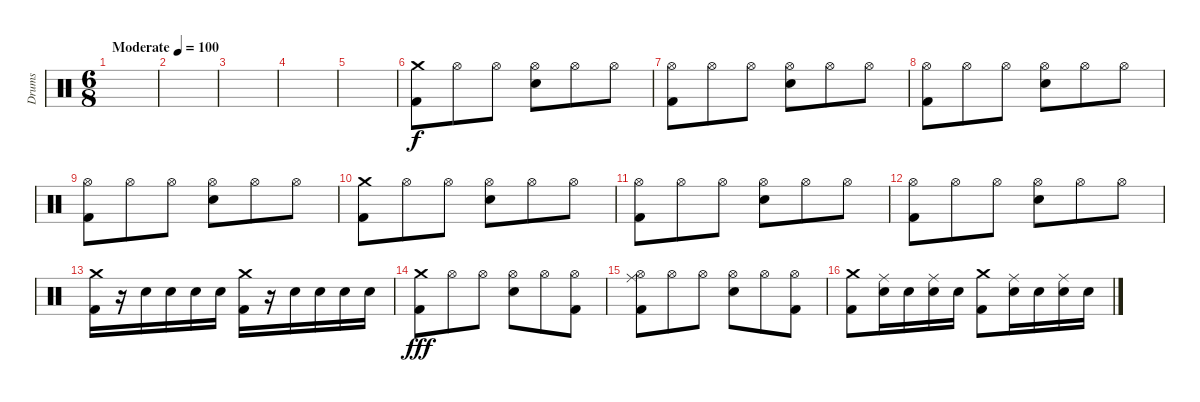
\track ("Drums" "Drums") {instrument percussion}
\staff {score}
\articulation defaults
\ts (6 8)
\tempo (100 "Moderate")
\clef neutral
\ks c
|
|
|
|
|
("Crash medium (hit)" "Kick (hit) 2").8 "Hi-Hat (open)".8 "Hi-Hat (open)".8 ("Hi-Hat (open)" "Electric Snare (hit)").8 "Hi-Hat (open)".8 "Hi-Hat (open)".8 |
("Hi-Hat (open)" "Kick (hit) 2").8 "Hi-Hat (open)".8 "Hi-Hat (open)".8 ("Hi-Hat (open)" "Electric Snare (hit)").8 "Hi-Hat (open)".8 "Hi-Hat (open)".8 |
("Hi-Hat (open)" "Kick (hit) 2").8 "Hi-Hat (open)".8 "Hi-Hat (open)".8 ("Hi-Hat (open)" "Electric Snare (hit)").8 "Hi-Hat (open)".8 "Hi-Hat (open)".8 |
("Hi-Hat (open)" "Kick (hit) 2").8 "Hi-Hat (open)".8 "Hi-Hat (open)".8 ("Hi-Hat (open)" "Electric Snare (hit)").8 "Hi-Hat (open)".8 "Hi-Hat (open)".8 |
("Crash medium (hit)" "Kick (hit) 2").8 "Hi-Hat (open)".8 "Hi-Hat (open)".8 ("Hi-Hat (open)" "Electric Snare (hit)").8 "Hi-Hat (open)".8 "Hi-Hat (open)".8 |
("Hi-Hat (open)" "Kick (hit) 2").8 "Hi-Hat (open)".8 "Hi-Hat (open)".8 ("Hi-Hat (open)" "Electric Snare (hit)").8 "Hi-Hat (open)".8 "Hi-Hat (open)".8 |
("Hi-Hat (open)" "Kick (hit) 2").8 "Hi-Hat (open)".8 "Hi-Hat (open)".8 ("Hi-Hat (open)" "Electric Snare (hit)").8 "Hi-Hat (open)".8 "Hi-Hat (open)".8 |
("Crash medium (hit)" "Kick (hit) 2").16 r.16 "Electric Snare (hit)".16 "Electric Snare (hit)".16 "Electric Snare (hit)".16 "Electric Snare (hit)".16 ("Crash medium (hit)" "Kick (hit) 2").16 r.16 "Electric Snare (hit)".16 "Electric Snare (hit)".16 "Electric Snare (hit)".16 "Electric Snare (hit)".16 |
("Crash medium (hit)" "Kick (hit) 2").8{dy fff} "Hi-Hat (open)".8 "Hi-Hat (open)".8 ("Hi-Hat (open)" "Electric Snare (hit)").8 "Hi-Hat (open)".8 ("Hi-Hat (open)" "Kick (hit) 2").8 |
("Ride (middle)" "Hi-Hat (open)" "Kick (hit) 2").8 "Hi-Hat (open)".8 "Hi-Hat (open)".8 ("Hi-Hat (open)" "Electric Snare (hit)").8 "Hi-Hat (open)".8 ("Hi-Hat (open)" "Kick (hit) 2").8 |
("Crash medium (hit)" "Kick (hit) 2").8 ("Ride (middle)" "Electric Snare (hit)").16 "Electric Snare (hit)".16 ("Ride (middle)" "Electric Snare (hit)").16 "Electric Snare (hit)".16 ("Crash medium (hit)" "Kick (hit) 2").8 ("Ride (middle)" "Electric Snare (hit)").16 "Electric Snare (hit)".16 ("Ride (middle)" "Electric Snare (hit)").16 "Electric Snare (hit)".16
